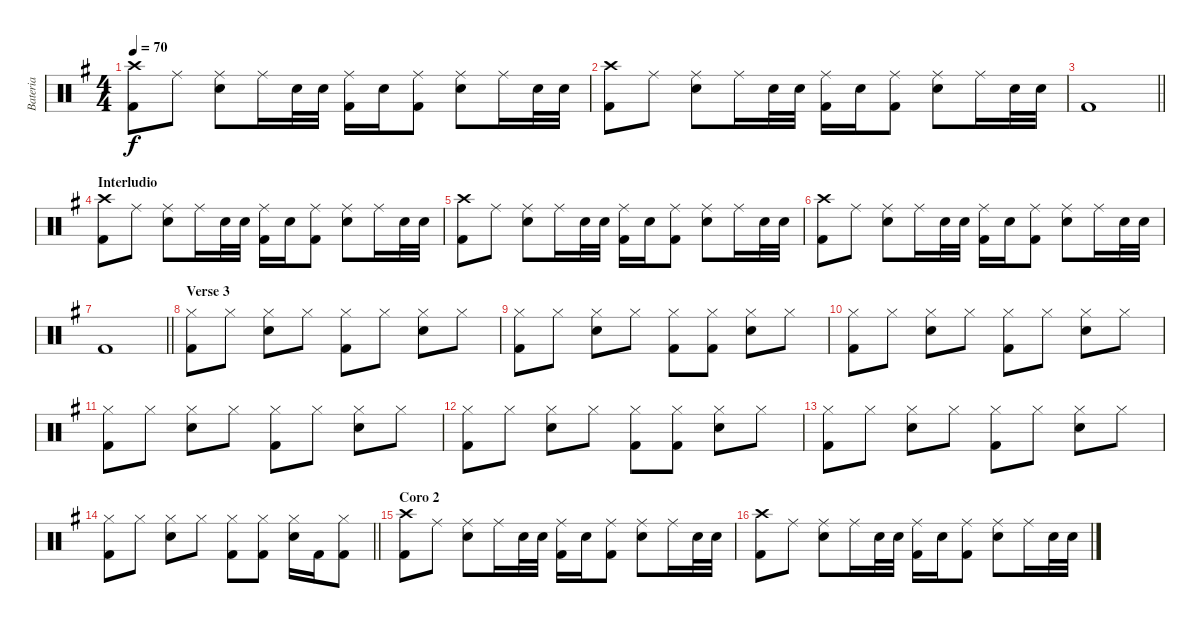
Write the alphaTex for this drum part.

\track ("Bateria" "Bateria") {instrument percussion}
\staff {score}
\articulation defaults
\ts (4 4)
\tempo 70
\clef neutral
\ks g
("Kick (hit) 2" "Crash high (hit)").8{dy f} "Ride (middle)".8 ("Electric Snare (hit)" "Ride (middle)").8 "Ride (middle)".16 "Electric Snare (hit)".32 "Electric Snare (hit)".32 ("Kick (hit) 2" "Ride (middle)").16 "Electric Snare (hit)".16 ("Kick (hit) 2" "Ride (middle)").8 ("Electric Snare (hit)" "Ride (middle)").8 "Ride (middle)".16 "Electric Snare (hit)".32 "Electric Snare (hit)".32 |
("Kick (hit) 2" "Crash high (hit)").8 "Ride (middle)".8 ("Electric Snare (hit)" "Ride (middle)").8 "Ride (middle)".16 "Electric Snare (hit)".32 "Electric Snare (hit)".32 ("Kick (hit) 2" "Ride (middle)").16 "Electric Snare (hit)".16 ("Kick (hit) 2" "Ride (middle)").8 ("Electric Snare (hit)" "Ride (middle)").8 "Ride (middle)".16 "Electric Snare (hit)".32 "Electric Snare (hit)".32 |
\barLineRight lightlight "Kick (hit) 2".1
|
\section ("" "Interludio")
("Kick (hit) 2" "Crash high (hit)").8 "Ride (middle)".8 ("Electric Snare (hit)" "Ride (middle)").8 "Ride (middle)".16 "Electric Snare (hit)".32 "Electric Snare (hit)".32 ("Kick (hit) 2" "Ride (middle)").16 "Electric Snare (hit)".16 ("Kick (hit) 2" "Ride (middle)").8 ("Electric Snare (hit)" "Ride (middle)").8 "Ride (middle)".16 "Electric Snare (hit)".32 "Electric Snare (hit)".32 |
("Kick (hit) 2" "Crash high (hit)").8 "Ride (middle)".8 ("Electric Snare (hit)" "Ride (middle)").8 "Ride (middle)".16 "Electric Snare (hit)".32 "Electric Snare (hit)".32 ("Kick (hit) 2" "Ride (middle)").16 "Electric Snare (hit)".16 ("Kick (hit) 2" "Ride (middle)").8 ("Electric Snare (hit)" "Ride (middle)").8 "Ride (middle)".16 "Electric Snare (hit)".32 "Electric Snare (hit)".32 |
("Kick (hit) 2" "Crash high (hit)").8 "Ride (middle)".8 ("Electric Snare (hit)" "Ride (middle)").8 "Ride (middle)".16 "Electric Snare (hit)".32 "Electric Snare (hit)".32 ("Kick (hit) 2" "Ride (middle)").16 "Electric Snare (hit)".16 ("Kick (hit) 2" "Ride (middle)").8 ("Electric Snare (hit)" "Ride (middle)").8 "Ride (middle)".16 "Electric Snare (hit)".32 "Electric Snare (hit)".32 |
\barLineRight lightlight "Kick (hit) 2".1
|
\section ("" "Verse 3")
("Hi-Hat (closed)" "Kick (hit) 2").8 "Hi-Hat (closed)".8 ("Hi-Hat (closed)" "Electric Snare (hit)").8 "Hi-Hat (closed)".8 ("Hi-Hat (closed)" "Kick (hit) 2").8 "Hi-Hat (closed)".8 ("Hi-Hat (closed)" "Electric Snare (hit)").8 "Hi-Hat (closed)".8 |
("Hi-Hat (closed)" "Kick (hit) 2").8 "Hi-Hat (closed)".8 ("Hi-Hat (closed)" "Electric Snare (hit)").8 "Hi-Hat (closed)".8 ("Hi-Hat (closed)" "Kick (hit) 2").8 ("Hi-Hat (closed)" "Kick (hit) 2").8 ("Hi-Hat (closed)" "Electric Snare (hit)").8 "Hi-Hat (closed)".8 |
("Hi-Hat (closed)" "Kick (hit) 2").8 "Hi-Hat (closed)".8 ("Hi-Hat (closed)" "Electric Snare (hit)").8 "Hi-Hat (closed)".8 ("Hi-Hat (closed)" "Kick (hit) 2").8 "Hi-Hat (closed)".8 ("Hi-Hat (closed)" "Electric Snare (hit)").8 "Hi-Hat (closed)".8 |
("Hi-Hat (closed)" "Kick (hit) 2").8 "Hi-Hat (closed)".8 ("Hi-Hat (closed)" "Electric Snare (hit)").8 "Hi-Hat (closed)".8 ("Hi-Hat (closed)" "Kick (hit) 2").8 "Hi-Hat (closed)".8 ("Hi-Hat (closed)" "Electric Snare (hit)").8 "Hi-Hat (closed)".8 |
("Hi-Hat (closed)" "Kick (hit) 2").8 "Hi-Hat (closed)".8 ("Hi-Hat (closed)" "Electric Snare (hit)").8 "Hi-Hat (closed)".8 ("Hi-Hat (closed)" "Kick (hit) 2").8 ("Hi-Hat (closed)" "Kick (hit) 2").8 ("Hi-Hat (closed)" "Electric Snare (hit)").8 "Hi-Hat (closed)".8 |
("Hi-Hat (closed)" "Kick (hit) 2").8 "Hi-Hat (closed)".8 ("Hi-Hat (closed)" "Electric Snare (hit)").8 "Hi-Hat (closed)".8 ("Hi-Hat (closed)" "Kick (hit) 2").8 "Hi-Hat (closed)".8 ("Hi-Hat (closed)" "Electric Snare (hit)").8 "Hi-Hat (closed)".8 |
\barLineRight lightlight
("Hi-Hat (closed)" "Kick (hit) 2").8 "Hi-Hat (closed)".8 ("Hi-Hat (closed)" "Electric Snare (hit)").8 "Hi-Hat (closed)".8 ("Hi-Hat (closed)" "Kick (hit) 2").8 ("Hi-Hat (closed)" "Kick (hit) 2").8 ("Hi-Hat (closed)" "Electric Snare (hit)").16 "Kick (hit) 2".16 ("Hi-Hat (closed)" "Kick (hit) 2").8 |
\section ("" "Coro 2")
("Kick (hit) 2" "Crash high (hit)").8 "Ride (middle)".8 ("Electric Snare (hit)" "Ride (middle)").8 "Ride (middle)".16 "Electric Snare (hit)".32 "Electric Snare (hit)".32 ("Kick (hit) 2" "Ride (middle)").16 "Electric Snare (hit)".16 ("Kick (hit) 2" "Ride (middle)").8 ("Electric Snare (hit)" "Ride (middle)").8 "Ride (middle)".16 "Electric Snare (hit)".32 "Electric Snare (hit)".32 |
("Kick (hit) 2" "Crash high (hit)").8 "Ride (middle)".8 ("Electric Snare (hit)" "Ride (middle)").8 "Ride (middle)".16 "Electric Snare (hit)".32 "Electric Snare (hit)".32 ("Kick (hit) 2" "Ride (middle)").16 "Electric Snare (hit)".16 ("Kick (hit) 2" "Ride (middle)").8 ("Electric Snare (hit)" "Ride (middle)").8 "Ride (middle)".16 "Electric Snare (hit)".32 "Electric Snare (hit)".32
